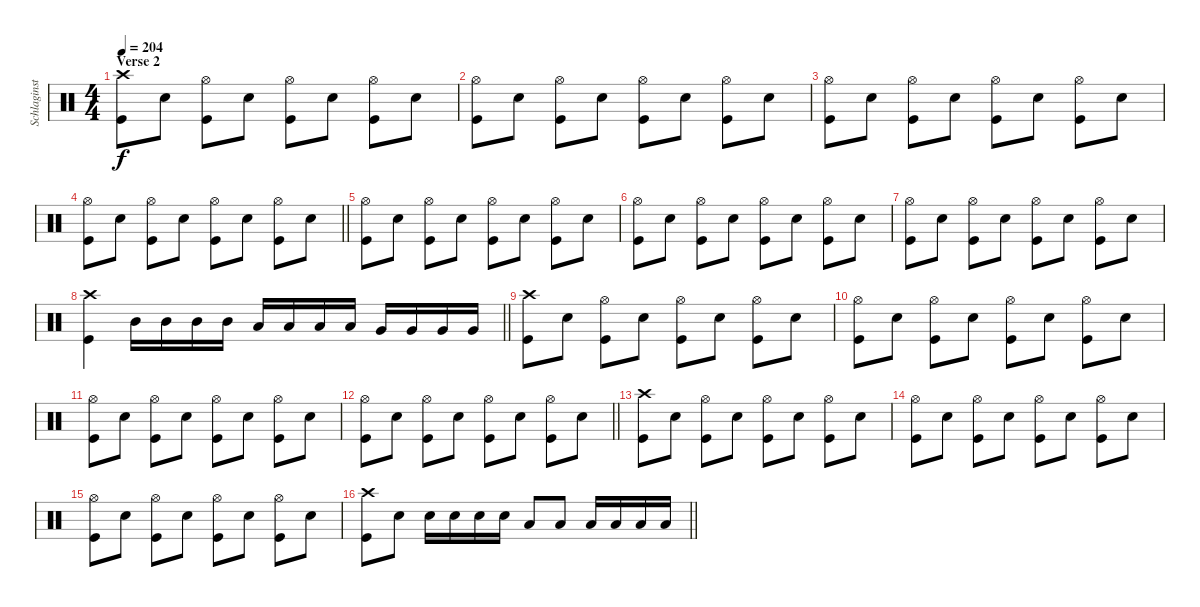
\track ("Schlaginstrumente - Auswahl" "Schlaginst") {instrument percussion}
\staff {score}
\articulation defaults
\ts (4 4)
\section ("" "Verse 2")
\tempo 204
\clef neutral
\ks c
("Kick (hit)" "Crash high (hit)").8{dy f} "Snare (hit) 2".8 ("Kick (hit)" "Hi-Hat (open)").8 "Snare (hit) 2".8 ("Kick (hit)" "Hi-Hat (open)").8 "Snare (hit) 2".8 ("Kick (hit)" "Hi-Hat (open)").8 "Snare (hit) 2".8 |
("Kick (hit)" "Hi-Hat (open)").8 "Snare (hit) 2".8 ("Kick (hit)" "Hi-Hat (open)").8 "Snare (hit) 2".8 ("Kick (hit)" "Hi-Hat (open)").8 "Snare (hit) 2".8 ("Kick (hit)" "Hi-Hat (open)").8 "Snare (hit) 2".8 |
("Kick (hit)" "Hi-Hat (open)").8 "Snare (hit) 2".8 ("Kick (hit)" "Hi-Hat (open)").8 "Snare (hit) 2".8 ("Kick (hit)" "Hi-Hat (open)").8 "Snare (hit) 2".8 ("Kick (hit)" "Hi-Hat (open)").8 "Snare (hit) 2".8 |
\barLineRight lightlight
("Kick (hit)" "Hi-Hat (open)").8 "Snare (hit) 2".8 ("Kick (hit)" "Hi-Hat (open)").8 "Snare (hit) 2".8 ("Kick (hit)" "Hi-Hat (open)").8 "Snare (hit) 2".8 ("Kick (hit)" "Hi-Hat (open)").8 "Snare (hit) 2".8 |
("Kick (hit)" "Hi-Hat (open)").8 "Snare (hit) 2".8 ("Kick (hit)" "Hi-Hat (open)").8 "Snare (hit) 2".8 ("Kick (hit)" "Hi-Hat (open)").8 "Snare (hit) 2".8 ("Kick (hit)" "Hi-Hat (open)").8 "Snare (hit) 2".8 |
("Kick (hit)" "Hi-Hat (open)").8 "Snare (hit) 2".8 ("Kick (hit)" "Hi-Hat (open)").8 "Snare (hit) 2".8 ("Kick (hit)" "Hi-Hat (open)").8 "Snare (hit) 2".8 ("Kick (hit)" "Hi-Hat (open)").8 "Snare (hit) 2".8 |
("Kick (hit)" "Hi-Hat (open)").8 "Snare (hit) 2".8 ("Kick (hit)" "Hi-Hat (open)").8 "Snare (hit) 2".8 ("Kick (hit)" "Hi-Hat (open)").8 "Snare (hit) 2".8 ("Kick (hit)" "Hi-Hat (open)").8 "Snare (hit) 2".8 |
\barLineRight lightlight
("Kick (hit)" "Crash high (hit)").4 "Mid Tom (hit)".16 "Mid Tom (hit)".16 "Mid Tom (hit)".16 "Mid Tom (hit)".16 "Low Tom (hit)".16 "Low Tom (hit)".16 "Low Tom (hit)".16 "Low Tom (hit)".16 "Very Low Tom (hit)".16 "Very Low Tom (hit)".16 "Very Low Tom (hit)".16 "Very Low Tom (hit)".16 |
("Kick (hit)" "Crash high (hit)").8 "Snare (hit) 2".8 ("Kick (hit)" "Hi-Hat (open)").8 "Snare (hit) 2".8 ("Kick (hit)" "Hi-Hat (open)").8 "Snare (hit) 2".8 ("Kick (hit)" "Hi-Hat (open)").8 "Snare (hit) 2".8 |
("Kick (hit)" "Hi-Hat (open)").8 "Snare (hit) 2".8 ("Kick (hit)" "Hi-Hat (open)").8 "Snare (hit) 2".8 ("Kick (hit)" "Hi-Hat (open)").8 "Snare (hit) 2".8 ("Kick (hit)" "Hi-Hat (open)").8 "Snare (hit) 2".8 |
("Kick (hit)" "Hi-Hat (open)").8 "Snare (hit) 2".8 ("Kick (hit)" "Hi-Hat (open)").8 "Snare (hit) 2".8 ("Kick (hit)" "Hi-Hat (open)").8 "Snare (hit) 2".8 ("Kick (hit)" "Hi-Hat (open)").8 "Snare (hit) 2".8 |
\barLineRight lightlight
("Kick (hit)" "Hi-Hat (open)").8 "Snare (hit) 2".8 ("Kick (hit)" "Hi-Hat (open)").8 "Snare (hit) 2".8 ("Kick (hit)" "Hi-Hat (open)").8 "Snare (hit) 2".8 ("Kick (hit)" "Hi-Hat (open)").8 "Snare (hit) 2".8 |
("Kick (hit)" "Crash high (hit)").8 "Snare (hit) 2".8 ("Kick (hit)" "Hi-Hat (open)").8 "Snare (hit) 2".8 ("Kick (hit)" "Hi-Hat (open)").8 "Snare (hit) 2".8 ("Kick (hit)" "Hi-Hat (open)").8 "Snare (hit) 2".8 |
("Kick (hit)" "Hi-Hat (open)").8 "Snare (hit) 2".8 ("Kick (hit)" "Hi-Hat (open)").8 "Snare (hit) 2".8 ("Kick (hit)" "Hi-Hat (open)").8 "Snare (hit) 2".8 ("Kick (hit)" "Hi-Hat (open)").8 "Snare (hit) 2".8 |
("Kick (hit)" "Hi-Hat (open)").8 "Snare (hit) 2".8 ("Kick (hit)" "Hi-Hat (open)").8 "Snare (hit) 2".8 ("Kick (hit)" "Hi-Hat (open)").8 "Snare (hit) 2".8 ("Kick (hit)" "Hi-Hat (open)").8 "Snare (hit) 2".8 |
\barLineRight lightlight
("Kick (hit)" "Crash high (hit)").8 "Snare (hit) 2".8 "Snare (hit) 2".16 "Snare (hit) 2".16 "Snare (hit) 2".16 "Snare (hit) 2".16 "Low Tom (hit)".8 "Low Tom (hit)".8 "Low Tom (hit)".16 "Low Tom (hit)".16 "Low Tom (hit)".16 "Low Tom (hit)".16
